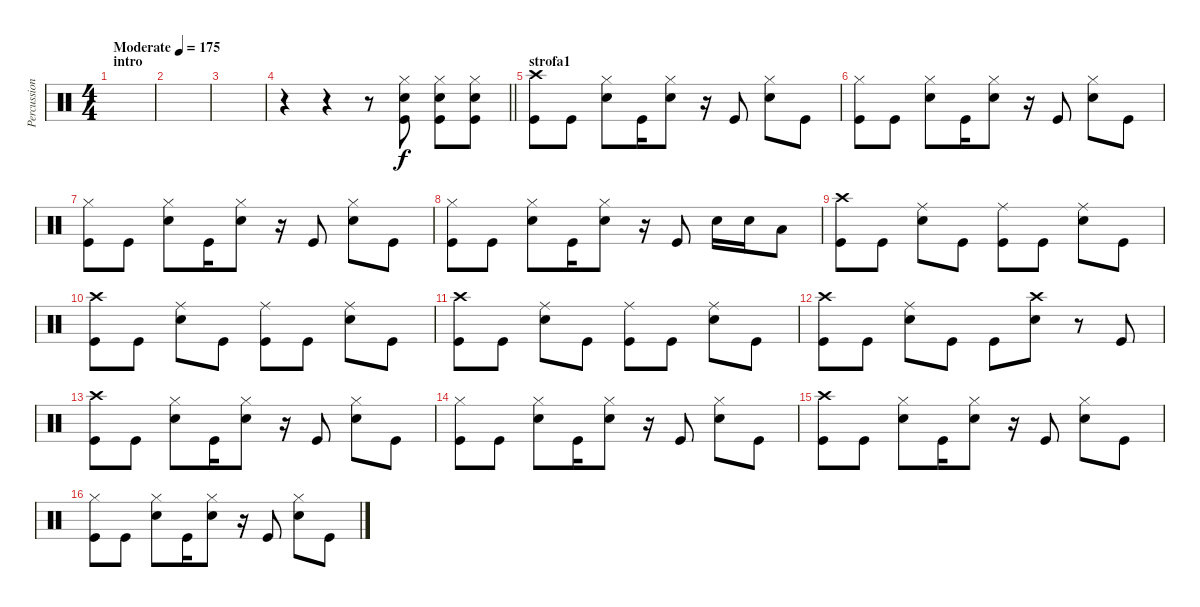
\track ("Percussioni" "Percussion") {instrument percussion}
\staff {score}
\articulation defaults
\ts (4 4)
\section ("" "intro")
\tempo (175 "Moderate")
\clef neutral
\ks c
|
|
|
\barLineRight lightlight
r.4 r.4 r.8 ("Hi-Hat (closed)" "Snare (hit) 2" "Kick (hit)").8 ("Hi-Hat (closed)" "Snare (hit) 2" "Kick (hit)").8 ("Hi-Hat (closed)" "Snare (hit) 2" "Kick (hit)").8 |
\section ("" "strofa1")
("Crash high (hit)" "Kick (hit)").8 "Kick (hit)".8 ("Hi-Hat (closed)" "Snare (hit) 2").8 "Kick (hit)".16 ("Hi-Hat (closed)" "Snare (hit) 2").8 r.16 "Kick (hit)".8 ("Hi-Hat (closed)" "Snare (hit) 2").8 "Kick (hit)".8 |
("Hi-Hat (closed)" "Kick (hit)").8 "Kick (hit)".8 ("Hi-Hat (closed)" "Snare (hit) 2").8 "Kick (hit)".16 ("Hi-Hat (closed)" "Snare (hit) 2").8 r.16 "Kick (hit)".8 ("Hi-Hat (closed)" "Snare (hit) 2").8 "Kick (hit)".8 |
("Hi-Hat (closed)" "Kick (hit)").8 "Kick (hit)".8 ("Hi-Hat (closed)" "Snare (hit) 2").8 "Kick (hit)".16 ("Hi-Hat (closed)" "Snare (hit) 2").8 r.16 "Kick (hit)".8 ("Hi-Hat (closed)" "Snare (hit) 2").8 "Kick (hit)".8 |
("Hi-Hat (closed)" "Kick (hit)").8 "Kick (hit)".8 ("Hi-Hat (closed)" "Snare (hit) 2").8 "Kick (hit)".16 ("Hi-Hat (closed)" "Snare (hit) 2").8 r.16 "Kick (hit)".8 "Snare (hit) 2".16 "Snare (hit) 2".16 "Low Tom (hit)".8 |
("Crash high (hit)" "Kick (hit)").8 "Kick (hit)".8 ("Ride (middle)" "Snare (hit) 2").8 "Kick (hit)".8 ("Ride (middle)" "Kick (hit)").8 "Kick (hit)".8 ("Ride (middle)" "Snare (hit) 2").8 "Kick (hit)".8 |
("Crash high (hit)" "Kick (hit)").8 "Kick (hit)".8 ("Ride (middle)" "Snare (hit) 2").8 "Kick (hit)".8 ("Ride (middle)" "Kick (hit)").8 "Kick (hit)".8 ("Ride (middle)" "Snare (hit) 2").8 "Kick (hit)".8 |
("Crash high (hit)" "Kick (hit)").8 "Kick (hit)".8 ("Ride (middle)" "Snare (hit) 2").8 "Kick (hit)".8 ("Ride (middle)" "Kick (hit)").8 "Kick (hit)".8 ("Ride (middle)" "Snare (hit) 2").8 "Kick (hit)".8 |
("Crash high (hit)" "Kick (hit)").8 "Kick (hit)".8 ("Ride (middle)" "Snare (hit) 2").8 "Kick (hit)".8 "Kick (hit)".8 ("Crash high (hit)" "Snare (hit) 2").8 r.8 "Kick (hit)".8 |
("Crash high (hit)" "Kick (hit)").8 "Kick (hit)".8 ("Hi-Hat (closed)" "Snare (hit) 2").8 "Kick (hit)".16 ("Hi-Hat (closed)" "Snare (hit) 2").8 r.16 "Kick (hit)".8 ("Hi-Hat (closed)" "Snare (hit) 2").8 "Kick (hit)".8 |
("Hi-Hat (closed)" "Kick (hit)").8 "Kick (hit)".8 ("Hi-Hat (closed)" "Snare (hit) 2").8 "Kick (hit)".16 ("Hi-Hat (closed)" "Snare (hit) 2").8 r.16 "Kick (hit)".8 ("Hi-Hat (closed)" "Snare (hit) 2").8 "Kick (hit)".8 |
("Crash high (hit)" "Kick (hit)").8 "Kick (hit)".8 ("Hi-Hat (closed)" "Snare (hit) 2").8 "Kick (hit)".16 ("Hi-Hat (closed)" "Snare (hit) 2").8 r.16 "Kick (hit)".8 ("Hi-Hat (closed)" "Snare (hit) 2").8 "Kick (hit)".8 |
("Hi-Hat (closed)" "Kick (hit)").8 "Kick (hit)".8 ("Hi-Hat (closed)" "Snare (hit) 2").8 "Kick (hit)".16 ("Hi-Hat (closed)" "Snare (hit) 2").8 r.16 "Kick (hit)".8 ("Hi-Hat (closed)" "Snare (hit) 2").8 "Kick (hit)".8
